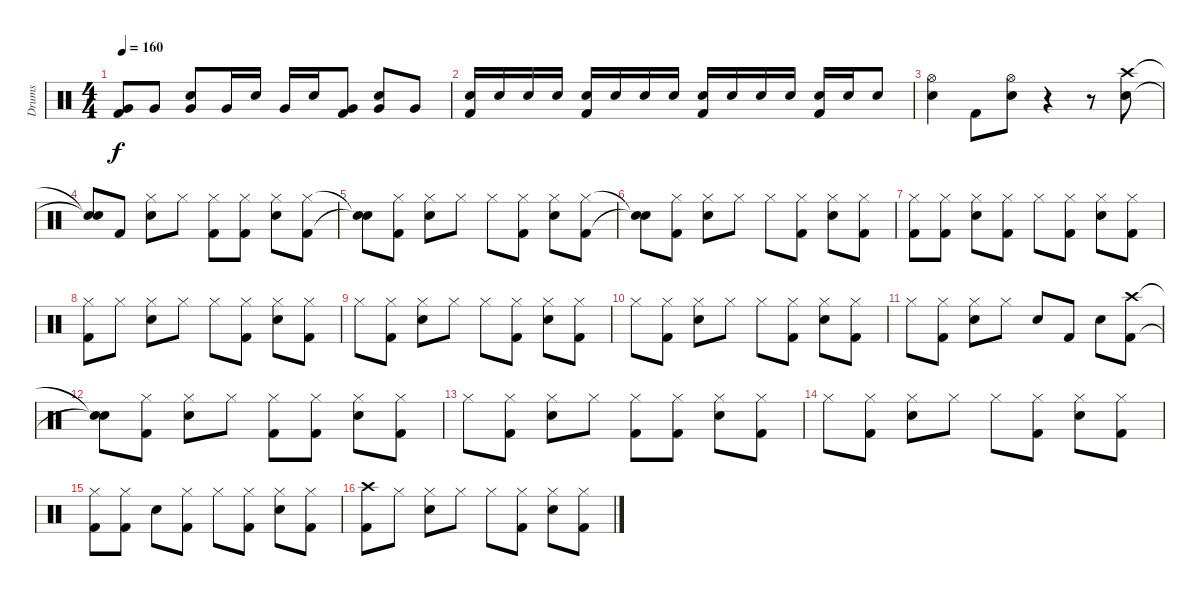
\track ("Drums" "Drums") {instrument percussion}
\staff {score}
\articulation defaults
\ts (4 4)
\tempo 160
\clef neutral
\ks c
("Very Low Tom (hit)" "Kick (hit) 2").8{dy f} "Very Low Tom (hit)".8 ("Snare (hit) 2" "Very Low Tom (hit)").8 "Very Low Tom (hit)".16 "Snare (hit) 2".16 "Very Low Tom (hit)".16 "Snare (hit) 2".16 ("Very Low Tom (hit)" "Kick (hit) 2").8 ("Snare (hit) 2" "Very Low Tom (hit)").8 "Very Low Tom (hit)".8 |
("Snare (hit) 2" "Kick (hit) 2").16 "Snare (hit) 2".16 "Snare (hit) 2".16 "Snare (hit) 2".16 ("Snare (hit) 2" "Kick (hit) 2").16 "Snare (hit) 2".16 "Snare (hit) 2".16 "Snare (hit) 2".16 ("Snare (hit) 2" "Kick (hit) 2").16 "Snare (hit) 2".16 "Snare (hit) 2".16 "Snare (hit) 2".16 ("Snare (hit) 2" "Kick (hit) 2").16 "Snare (hit) 2".16 "Snare (hit) 2".8 |
("Hi-Hat (open)" "Snare (hit) 2").4 "Kick (hit) 2".8 ("Hi-Hat (open)" "Snare (hit) 2").8 r.4 r.8 ("Crash high (hit)" "Snare (hit) 2").8 |
("Snare (hit)"{t} "Snare (hit)"{t}).8 "Kick (hit) 2".8 ("Hi-Hat (closed)" "Snare (hit) 2").8 "Hi-Hat (closed)".8 ("Hi-Hat (closed)" "Kick (hit) 2").8 ("Hi-Hat (closed)" "Kick (hit) 2").8 ("Hi-Hat (closed)" "Snare (hit) 2").8 ("Hi-Hat (closed)" "Kick (hit) 2").8 |
("Snare (hit)"{t} "Snare (hit)"{t}).8 ("Hi-Hat (closed)" "Kick (hit) 2").8 ("Hi-Hat (closed)" "Snare (hit) 2").8 "Hi-Hat (closed)".8 "Hi-Hat (closed)".8 ("Hi-Hat (closed)" "Kick (hit) 2").8 ("Hi-Hat (closed)" "Snare (hit) 2").8 ("Hi-Hat (closed)" "Kick (hit) 2").8 |
("Snare (hit)"{t} "Snare (hit)"{t}).8 ("Hi-Hat (closed)" "Kick (hit) 2").8 ("Hi-Hat (closed)" "Snare (hit) 2").8 "Hi-Hat (closed)".8 "Hi-Hat (closed)".8 ("Hi-Hat (closed)" "Kick (hit) 2").8 ("Hi-Hat (closed)" "Snare (hit) 2").8 ("Hi-Hat (closed)" "Kick (hit) 2").8 |
("Hi-Hat (closed)" "Kick (hit) 2").8 ("Hi-Hat (closed)" "Kick (hit) 2").8 ("Hi-Hat (closed)" "Snare (hit) 2").8 ("Hi-Hat (closed)" "Kick (hit) 2").8 "Hi-Hat (closed)".8 ("Hi-Hat (closed)" "Kick (hit) 2").8 ("Hi-Hat (closed)" "Snare (hit) 2").8 ("Hi-Hat (closed)" "Kick (hit) 2").8 |
("Hi-Hat (closed)" "Kick (hit) 2").8 "Hi-Hat (closed)".8 ("Hi-Hat (closed)" "Snare (hit) 2").8 "Hi-Hat (closed)".8 "Hi-Hat (closed)".8 ("Hi-Hat (closed)" "Kick (hit) 2").8 ("Hi-Hat (closed)" "Snare (hit) 2").8 ("Hi-Hat (closed)" "Kick (hit) 2").8 |
"Hi-Hat (closed)".8 ("Hi-Hat (closed)" "Kick (hit) 2").8 ("Hi-Hat (closed)" "Snare (hit) 2").8 "Hi-Hat (closed)".8 "Hi-Hat (closed)".8 ("Hi-Hat (closed)" "Kick (hit) 2").8 ("Hi-Hat (closed)" "Snare (hit) 2").8 ("Hi-Hat (closed)" "Kick (hit) 2").8 |
"Hi-Hat (closed)".8 ("Hi-Hat (closed)" "Kick (hit) 2").8 ("Hi-Hat (closed)" "Snare (hit) 2").8 "Hi-Hat (closed)".8 "Hi-Hat (closed)".8 ("Hi-Hat (closed)" "Kick (hit) 2").8 ("Hi-Hat (closed)" "Snare (hit) 2").8 ("Hi-Hat (closed)" "Kick (hit) 2").8 |
"Hi-Hat (closed)".8 ("Hi-Hat (closed)" "Kick (hit) 2").8 ("Hi-Hat (closed)" "Snare (hit) 2").8 "Hi-Hat (closed)".8 "Snare (hit) 2".8 "Kick (hit) 2".8 "Snare (hit) 2".8 ("Crash high (hit)" "Kick (hit) 2").8 |
("Snare (hit)"{t} "Snare (hit)"{t}).8 ("Hi-Hat (closed)" "Kick (hit) 2").8 ("Hi-Hat (closed)" "Snare (hit) 2").8 "Hi-Hat (closed)".8 ("Hi-Hat (closed)" "Kick (hit) 2").8 ("Hi-Hat (closed)" "Kick (hit) 2").8 ("Hi-Hat (closed)" "Snare (hit) 2").8 ("Hi-Hat (closed)" "Kick (hit) 2").8 |
"Hi-Hat (closed)".8 ("Hi-Hat (closed)" "Kick (hit) 2").8 ("Hi-Hat (closed)" "Snare (hit) 2").8 "Hi-Hat (closed)".8 ("Hi-Hat (closed)" "Kick (hit) 2").8 ("Hi-Hat (closed)" "Kick (hit) 2").8 ("Hi-Hat (closed)" "Snare (hit) 2").8 ("Hi-Hat (closed)" "Kick (hit) 2").8 |
"Hi-Hat (closed)".8 ("Hi-Hat (closed)" "Kick (hit) 2").8 ("Hi-Hat (closed)" "Snare (hit) 2").8 "Hi-Hat (closed)".8 "Hi-Hat (closed)".8 ("Hi-Hat (closed)" "Kick (hit) 2").8 ("Hi-Hat (closed)" "Snare (hit) 2").8 ("Hi-Hat (closed)" "Kick (hit) 2").8 |
("Hi-Hat (closed)" "Kick (hit) 2").8 ("Hi-Hat (closed)" "Kick (hit) 2").8 "Snare (hit) 2".8 ("Hi-Hat (closed)" "Kick (hit) 2").8 "Hi-Hat (closed)".8 ("Hi-Hat (closed)" "Kick (hit) 2").8 ("Hi-Hat (closed)" "Snare (hit) 2").8 ("Hi-Hat (closed)" "Kick (hit) 2").8 |
("Crash high (hit)" "Kick (hit) 2").8 "Hi-Hat (closed)".8 ("Hi-Hat (closed)" "Snare (hit) 2").8 "Hi-Hat (closed)".8 "Hi-Hat (closed)".8 ("Hi-Hat (closed)" "Kick (hit) 2").8 ("Hi-Hat (closed)" "Snare (hit) 2").8 ("Hi-Hat (closed)" "Kick (hit) 2").8
